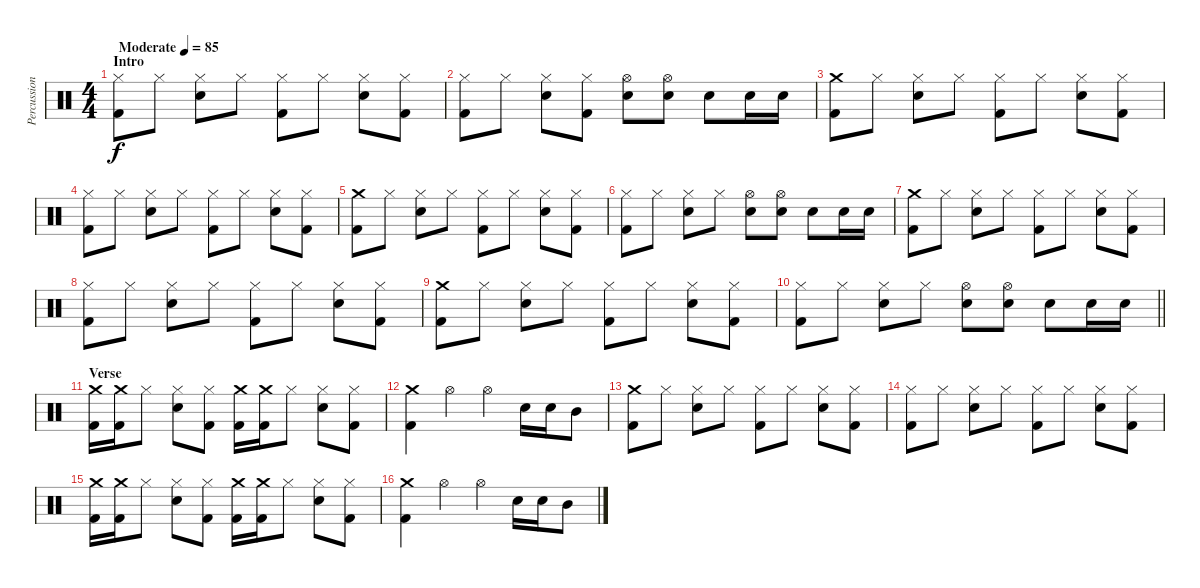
\track ("Percussion" "Percussion") {instrument percussion}
\staff {score}
\articulation defaults
\ts (4 4)
\section ("" "Intro")
\tempo (85 "Moderate")
\clef neutral
\ks c
("Hi-Hat (closed)" "Kick (hit) 2").8{dy f} "Hi-Hat (closed)".8 ("Hi-Hat (closed)" "Electric Snare (hit)").8 "Hi-Hat (closed)".8 ("Hi-Hat (closed)" "Kick (hit) 2").8 "Hi-Hat (closed)".8 ("Hi-Hat (closed)" "Electric Snare (hit)").8 ("Hi-Hat (closed)" "Kick (hit) 2").8 |
("Hi-Hat (closed)" "Kick (hit) 2").8 "Hi-Hat (closed)".8 ("Hi-Hat (closed)" "Electric Snare (hit)").8 ("Hi-Hat (closed)" "Kick (hit) 2").8 ("Hi-Hat (open)" "Electric Snare (hit)").8 ("Hi-Hat (open)" "Electric Snare (hit)").8 "Electric Snare (hit)".8 "Electric Snare (hit)".16 "Electric Snare (hit)".16 |
("Crash medium (hit)" "Kick (hit) 2").8 "Hi-Hat (closed)".8 ("Hi-Hat (closed)" "Electric Snare (hit)").8 "Hi-Hat (closed)".8 ("Hi-Hat (closed)" "Kick (hit) 2").8 "Hi-Hat (closed)".8 ("Hi-Hat (closed)" "Electric Snare (hit)").8 ("Hi-Hat (closed)" "Kick (hit) 2").8 |
("Hi-Hat (closed)" "Kick (hit) 2").8 "Hi-Hat (closed)".8 ("Hi-Hat (closed)" "Electric Snare (hit)").8 "Hi-Hat (closed)".8 ("Hi-Hat (closed)" "Kick (hit) 2").8 "Hi-Hat (closed)".8 ("Hi-Hat (closed)" "Electric Snare (hit)").8 ("Hi-Hat (closed)" "Kick (hit) 2").8 |
("Crash medium (hit)" "Kick (hit) 2").8 "Hi-Hat (closed)".8 ("Hi-Hat (closed)" "Electric Snare (hit)").8 "Hi-Hat (closed)".8 ("Hi-Hat (closed)" "Kick (hit) 2").8 "Hi-Hat (closed)".8 ("Hi-Hat (closed)" "Electric Snare (hit)").8 ("Hi-Hat (closed)" "Kick (hit) 2").8 |
("Hi-Hat (closed)" "Kick (hit) 2").8 "Hi-Hat (closed)".8 ("Hi-Hat (closed)" "Electric Snare (hit)").8 "Hi-Hat (closed)".8 ("Hi-Hat (open)" "Electric Snare (hit)").8 ("Hi-Hat (open)" "Electric Snare (hit)").8 "Electric Snare (hit)".8 "Electric Snare (hit)".16 "Electric Snare (hit)".16 |
("Crash medium (hit)" "Kick (hit) 2").8 "Hi-Hat (closed)".8 ("Hi-Hat (closed)" "Electric Snare (hit)").8 "Hi-Hat (closed)".8 ("Hi-Hat (closed)" "Kick (hit) 2").8 "Hi-Hat (closed)".8 ("Hi-Hat (closed)" "Electric Snare (hit)").8 ("Hi-Hat (closed)" "Kick (hit) 2").8 |
("Hi-Hat (closed)" "Kick (hit) 2").8 "Hi-Hat (closed)".8 ("Hi-Hat (closed)" "Electric Snare (hit)").8 "Hi-Hat (closed)".8 ("Hi-Hat (closed)" "Kick (hit) 2").8 "Hi-Hat (closed)".8 ("Hi-Hat (closed)" "Electric Snare (hit)").8 ("Hi-Hat (closed)" "Kick (hit) 2").8 |
("Crash medium (hit)" "Kick (hit) 2").8 "Hi-Hat (closed)".8 ("Hi-Hat (closed)" "Electric Snare (hit)").8 "Hi-Hat (closed)".8 ("Hi-Hat (closed)" "Kick (hit) 2").8 "Hi-Hat (closed)".8 ("Hi-Hat (closed)" "Electric Snare (hit)").8 ("Hi-Hat (closed)" "Kick (hit) 2").8 |
\barLineRight lightlight
("Hi-Hat (closed)" "Kick (hit) 2").8 "Hi-Hat (closed)".8 ("Hi-Hat (closed)" "Electric Snare (hit)").8 "Hi-Hat (closed)".8 ("Hi-Hat (open)" "Electric Snare (hit)").8 ("Hi-Hat (open)" "Electric Snare (hit)").8 "Electric Snare (hit)".8 "Electric Snare (hit)".16 "Electric Snare (hit)".16 |
\section ("" "Verse")
("Crash medium (hit)" "Kick (hit) 2").16 ("Crash medium (hit)" "Kick (hit) 2").16 "Hi-Hat (closed)".8 ("Hi-Hat (closed)" "Electric Snare (hit)").8 ("Hi-Hat (closed)" "Kick (hit) 2").8 ("Crash medium (hit)" "Kick (hit) 2").16 ("Crash medium (hit)" "Kick (hit) 2").16 "Hi-Hat (closed)".8 ("Hi-Hat (closed)" "Electric Snare (hit)").8 ("Hi-Hat (closed)" "Kick (hit) 2").8 |
("Crash medium (hit)" "Kick (hit) 2").4 "Hi-Hat (open)".4 "Hi-Hat (open)".4 "Electric Snare (hit)".16 "Electric Snare (hit)".16 "Mid Tom (hit)".8 |
("Crash medium (hit)" "Kick (hit) 2").8 "Hi-Hat (closed)".8 ("Hi-Hat (closed)" "Electric Snare (hit)").8 "Hi-Hat (closed)".8 ("Hi-Hat (closed)" "Kick (hit) 2").8 "Hi-Hat (closed)".8 ("Hi-Hat (closed)" "Electric Snare (hit)").8 ("Hi-Hat (closed)" "Kick (hit) 2").8 |
("Hi-Hat (closed)" "Kick (hit) 2").8 "Hi-Hat (closed)".8 ("Hi-Hat (closed)" "Electric Snare (hit)").8 "Hi-Hat (closed)".8 ("Hi-Hat (closed)" "Kick (hit) 2").8 "Hi-Hat (closed)".8 ("Hi-Hat (closed)" "Electric Snare (hit)").8 ("Hi-Hat (closed)" "Kick (hit) 2").8 |
("Crash medium (hit)" "Kick (hit) 2").16 ("Crash medium (hit)" "Kick (hit) 2").16 "Hi-Hat (closed)".8 ("Hi-Hat (closed)" "Electric Snare (hit)").8 ("Hi-Hat (closed)" "Kick (hit) 2").8 ("Crash medium (hit)" "Kick (hit) 2").16 ("Crash medium (hit)" "Kick (hit) 2").16 "Hi-Hat (closed)".8 ("Hi-Hat (closed)" "Electric Snare (hit)").8 ("Hi-Hat (closed)" "Kick (hit) 2").8 |
("Crash medium (hit)" "Kick (hit) 2").4 "Hi-Hat (open)".4 "Hi-Hat (open)".4 "Electric Snare (hit)".16 "Electric Snare (hit)".16 "Mid Tom (hit)".8
